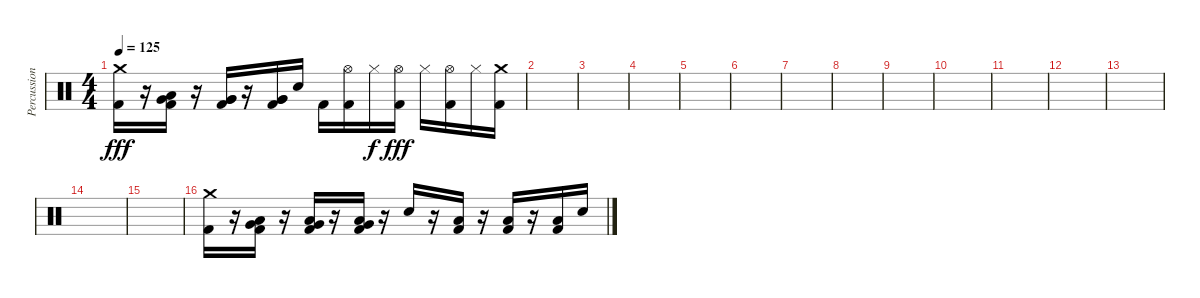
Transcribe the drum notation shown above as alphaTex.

\track ("Percussion" "Percussion") {instrument percussion}
\staff {score}
\articulation defaults
\ts (4 4)
\tempo 125
\clef neutral
\ks c
("Crash medium (hit)" "Kick (hit) 2").16{dy fff} r.16 ("Very Low Tom (hit)" "Low Floor Tom (hit)" "Kick (hit) 2").16 r.16 ("Very Low Tom (hit)" "Very Low Tom (hit)" "Kick (hit) 2").16 r.16 ("Very Low Tom (hit)" "Very Low Tom (hit)" "Kick (hit) 2").16 "Electric Snare (hit)".16 "Kick (hit) 2".16 ("Hi-Hat (open)" "Kick (hit) 2").16 "Hi-Hat (closed)".16{dy f} ("Hi-Hat (open)" "Kick (hit) 2").16{dy fff} "Hi-Hat (closed)".16 ("Hi-Hat (open)" "Kick (hit) 2").16 "Hi-Hat (closed)".16 ("Crash medium (hit)" "Kick (hit) 2").16 |
|
|
|
|
|
|
|
|
|
|
|
|
|
|
("Crash medium (hit)" "Kick (hit) 2").16 r.16 ("Very Low Tom (hit)" "Low Floor Tom (hit)" "Kick (hit) 2").16 r.16 ("Very Low Tom (hit)" "Low Floor Tom (hit)" "Kick (hit) 2").16 r.16 ("Very Low Tom (hit)" "Low Floor Tom (hit)" "Kick (hit) 2").16 r.16 "Electric Snare (hit)".16 r.16 ("Low Floor Tom (hit)" "Kick (hit) 2").16 r.16 ("Low Floor Tom (hit)" "Kick (hit) 2").16 r.16 ("Low Floor Tom (hit)" "Kick (hit) 2").16 "Electric Snare (hit)".16
